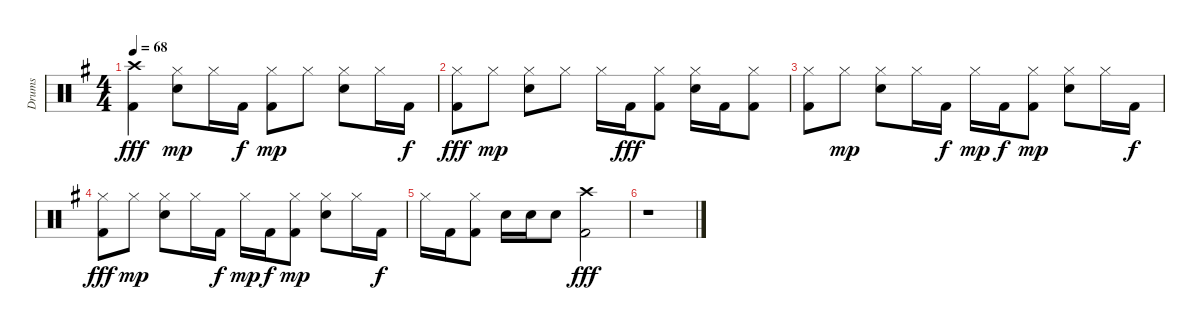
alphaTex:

\track ("Drums" "Drums") {instrument percussion}
\staff {score}
\articulation defaults
\ts (4 4)
\tempo 68
\clef neutral
\ks g
("Crash high (hit)" "Kick (hit) 2").4{dy fff} ("Hi-Hat (closed)" "Snare (hit) 2").8{dy mp} "Hi-Hat (closed)".16 "Kick (hit) 2".16{dy f} ("Hi-Hat (closed)" "Kick (hit) 2").8{dy mp} "Hi-Hat (closed)".8 ("Hi-Hat (closed)" "Snare (hit) 2").8 "Hi-Hat (closed)".16 "Kick (hit) 2".16{dy f} |
("Hi-Hat (closed)" "Kick (hit) 2").8{dy fff} "Hi-Hat (closed)".8{dy mp} ("Hi-Hat (closed)" "Snare (hit) 2").8 "Hi-Hat (closed)".8 "Hi-Hat (closed)".16{volume 16} "Kick (hit) 2".16{dy fff} ("Hi-Hat (closed)" "Kick (hit) 2").8 ("Hi-Hat (closed)" "Snare (hit) 2").16 "Kick (hit) 2".16 ("Hi-Hat (closed)" "Kick (hit) 2").8 |
("Hi-Hat (closed)" "Kick (hit) 2").8{volume 12} "Hi-Hat (closed)".8{dy mp} ("Hi-Hat (closed)" "Snare (hit) 2").8 "Hi-Hat (closed)".16 "Kick (hit) 2".16{dy f} "Hi-Hat (closed)".16{dy mp} "Kick (hit) 2".16{dy f} ("Hi-Hat (closed)" "Kick (hit) 2").8{dy mp} ("Hi-Hat (closed)" "Snare (hit) 2").8 "Hi-Hat (closed)".16 "Kick (hit) 2".16{dy f} |
("Hi-Hat (closed)" "Kick (hit) 2").8{dy fff} "Hi-Hat (closed)".8{dy mp} ("Hi-Hat (closed)" "Snare (hit) 2").8 "Hi-Hat (closed)".16 "Kick (hit) 2".16{dy f} "Hi-Hat (closed)".16{dy mp} "Kick (hit) 2".16{dy f} ("Hi-Hat (closed)" "Kick (hit) 2").8{dy mp} ("Hi-Hat (closed)" "Snare (hit) 2").8 "Hi-Hat (closed)".16 "Kick (hit) 2".16{dy f} |
"Hi-Hat (closed)".16 "Kick (hit) 2".16 ("Hi-Hat (closed)" "Kick (hit) 2").8 "Snare (hit) 2".16 "Snare (hit) 2".16 "Snare (hit) 2".8 ("Crash high (hit)" "Kick (hit) 2").2{dy fff} |
r.1
